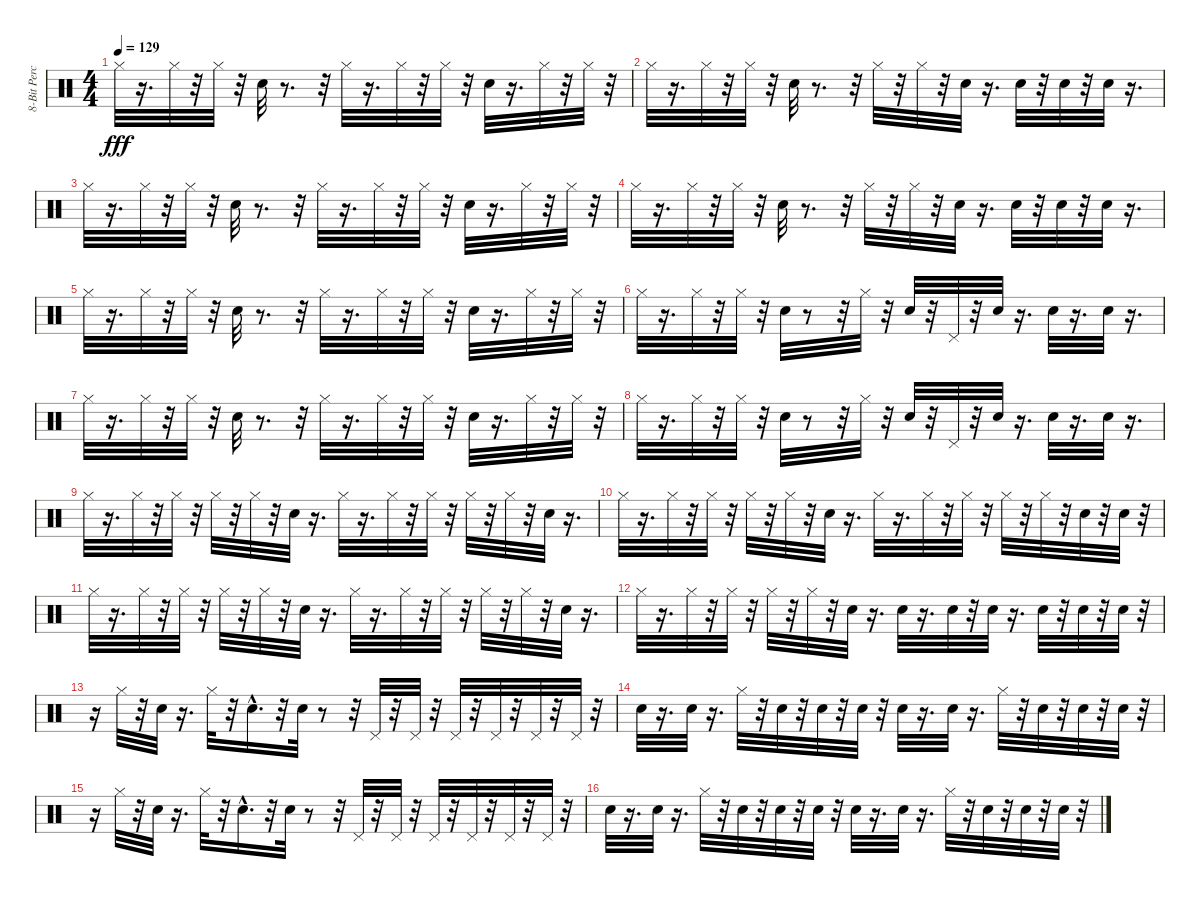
\track ("8-Bit Percussion" "8-Bit Perc") {instrument percussion}
\staff {score}
\articulation defaults
\ts (4 4)
\tempo 129
\clef neutral
\ks c "Hi-Hat (closed)".32{dy fff}
r.16{d} "Hi-Hat (closed)".32 r.32 "Hi-Hat (closed)".32 r.32 "Hand Clap (hit)".32 r.8{d} r.32 "Hi-Hat (closed)".32 r.16{d} "Hi-Hat (closed)".32 r.32 "Hi-Hat (closed)".32 r.32 "Hand Clap (hit)".32 r.16{d} "Hi-Hat (closed)".32 r.32 "Hi-Hat (closed)".32 r.32 |
"Hi-Hat (closed)".32 r.16{d} "Hi-Hat (closed)".32 r.32 "Hi-Hat (closed)".32 r.32 "Hand Clap (hit)".32 r.8{d} r.32 "Hi-Hat (closed)".32 r.32 "Hi-Hat (closed)".32 r.32 "Hand Clap (hit)".32 r.16{d} "Hand Clap (hit)".32 r.32 "Hand Clap (hit)".32 r.32 "Hand Clap (hit)".32 r.16{d} |
"Hi-Hat (closed)".32 r.16{d} "Hi-Hat (closed)".32 r.32 "Hi-Hat (closed)".32 r.32 "Hand Clap (hit)".32 r.8{d} r.32 "Hi-Hat (closed)".32 r.16{d} "Hi-Hat (closed)".32 r.32 "Hi-Hat (closed)".32 r.32 "Hand Clap (hit)".32 r.16{d} "Hi-Hat (closed)".32 r.32 "Hi-Hat (closed)".32 r.32 |
"Hi-Hat (closed)".32 r.16{d} "Hi-Hat (closed)".32 r.32 "Hi-Hat (closed)".32 r.32 "Hand Clap (hit)".32 r.8{d} r.32 "Hi-Hat (closed)".32 r.32 "Hi-Hat (closed)".32 r.32 "Hand Clap (hit)".32 r.16{d} "Hand Clap (hit)".32 r.32 "Hand Clap (hit)".32 r.32 "Hand Clap (hit)".32 r.16{d} |
"Hi-Hat (closed)".32 r.16{d} "Hi-Hat (closed)".32 r.32 "Hi-Hat (closed)".32 r.32 "Hand Clap (hit)".32 r.8{d} r.32 "Hi-Hat (closed)".32 r.16{d} "Hi-Hat (closed)".32 r.32 "Hi-Hat (closed)".32 r.32 "Hand Clap (hit)".32 r.16{d} "Hi-Hat (closed)".32 r.32 "Hi-Hat (closed)".32 r.32 |
"Hi-Hat (closed)".32 r.16{d} "Hi-Hat (closed)".32 r.32 "Hi-Hat (closed)".32 r.32 "Hand Clap (hit)".32 r.8 r.32 "Hi-Hat (closed)".32 r.32 "Hand Clap (hit)".32 r.32 "Pedal Hi-Hat (hit)".32 r.32 "Hand Clap (hit)".32 r.16{d} "Hand Clap (hit)".32 r.16{d} "Hand Clap (hit)".32 r.16{d} |
"Hi-Hat (closed)".32 r.16{d} "Hi-Hat (closed)".32 r.32 "Hi-Hat (closed)".32 r.32 "Hand Clap (hit)".32 r.8{d} r.32 "Hi-Hat (closed)".32 r.16{d} "Hi-Hat (closed)".32 r.32 "Hi-Hat (closed)".32 r.32 "Hand Clap (hit)".32 r.16{d} "Hi-Hat (closed)".32 r.32 "Hi-Hat (closed)".32 r.32 |
"Hi-Hat (closed)".32 r.16{d} "Hi-Hat (closed)".32 r.32 "Hi-Hat (closed)".32 r.32 "Hand Clap (hit)".32 r.8 r.32 "Hi-Hat (closed)".32 r.32 "Hand Clap (hit)".32 r.32 "Pedal Hi-Hat (hit)".32 r.32 "Hand Clap (hit)".32 r.16{d} "Hand Clap (hit)".32 r.16{d} "Hand Clap (hit)".32 r.16{d} |
"Hi-Hat (closed)".32 r.16{d} "Hi-Hat (closed)".32 r.32 "Hi-Hat (closed)".32 r.32 "Hi-Hat (closed)".32 r.32 "Hi-Hat (closed)".32 r.32 "Hand Clap (hit)".32 r.16{d} "Hi-Hat (closed)".32 r.16{d} "Hi-Hat (closed)".32 r.32 "Hi-Hat (closed)".32 r.32 "Hi-Hat (closed)".32 r.32 "Hi-Hat (closed)".32 r.32 "Hand Clap (hit)".32 r.16{d} |
"Hi-Hat (closed)".32 r.16{d} "Hi-Hat (closed)".32 r.32 "Hi-Hat (closed)".32 r.32 "Hi-Hat (closed)".32 r.32 "Hi-Hat (closed)".32 r.32 "Hand Clap (hit)".32 r.16{d} "Hi-Hat (closed)".32 r.16{d} "Hi-Hat (closed)".32 r.32 "Hi-Hat (closed)".32 r.32 "Hi-Hat (closed)".32 r.32 "Hi-Hat (closed)".32 r.32 "Hand Clap (hit)".32 r.32 "Hand Clap (hit)".32 r.32 |
"Hi-Hat (closed)".32 r.16{d} "Hi-Hat (closed)".32 r.32 "Hi-Hat (closed)".32 r.32 "Hi-Hat (closed)".32 r.32 "Hi-Hat (closed)".32 r.32 "Hand Clap (hit)".32 r.16{d} "Hi-Hat (closed)".32 r.16{d} "Hi-Hat (closed)".32 r.32 "Hi-Hat (closed)".32 r.32 "Hi-Hat (closed)".32 r.32 "Hi-Hat (closed)".32 r.32 "Hand Clap (hit)".32 r.16{d} |
"Hi-Hat (closed)".32 r.16{d} "Hi-Hat (closed)".32 r.32 "Hi-Hat (closed)".32 r.32 "Hi-Hat (closed)".32 r.32 "Hi-Hat (closed)".32 r.32 "Hand Clap (hit)".32 r.16{d} "Hand Clap (hit)".32 r.16{d} "Hand Clap (hit)".32 r.32 "Hand Clap (hit)".32 r.16{d} "Hand Clap (hit)".32 r.32 "Hand Clap (hit)".32 r.32 "Hand Clap (hit)".32 r.32 |
r.16 "Hi-Hat (closed)".32 r.32 "Hand Clap (hit)".32 r.16{d} "Hi-Hat (closed)".32 r.32 "Hand Clap (hit)"{hac}.16{d} r.32 "Hand Clap (hit)".32 r.8 r.32 "Pedal Hi-Hat (hit)".32 r.32 "Pedal Hi-Hat (hit)".32 r.32 "Pedal Hi-Hat (hit)".32 r.32 "Pedal Hi-Hat (hit)".32 r.32 "Pedal Hi-Hat (hit)".32 r.32 "Pedal Hi-Hat (hit)".32 r.32 |
"Hand Clap (hit)".32 r.16{d} "Hand Clap (hit)".32 r.16{d} "Hi-Hat (closed)".32 r.32 "Hand Clap (hit)".32 r.32 "Hand Clap (hit)".32 r.32 "Hand Clap (hit)".32 r.32 "Hand Clap (hit)".32 r.16{d} "Hand Clap (hit)".32 r.16{d} "Hi-Hat (closed)".32 r.32 "Hand Clap (hit)".32 r.32 "Hand Clap (hit)".32 r.32 "Hand Clap (hit)".32 r.32 |
r.16 "Hi-Hat (closed)".32 r.32 "Hand Clap (hit)".32 r.16{d} "Hi-Hat (closed)".32 r.32 "Hand Clap (hit)"{hac}.16{d} r.32 "Hand Clap (hit)".32 r.8 r.32 "Pedal Hi-Hat (hit)".32 r.32 "Pedal Hi-Hat (hit)".32 r.32 "Pedal Hi-Hat (hit)".32 r.32 "Pedal Hi-Hat (hit)".32 r.32 "Pedal Hi-Hat (hit)".32 r.32 "Pedal Hi-Hat (hit)".32 r.32 |
"Hand Clap (hit)".32 r.16{d} "Hand Clap (hit)".32 r.16{d} "Hi-Hat (closed)".32 r.32 "Hand Clap (hit)".32 r.32 "Hand Clap (hit)".32 r.32 "Hand Clap (hit)".32 r.32 "Hand Clap (hit)".32 r.16{d} "Hand Clap (hit)".32 r.16{d} "Hi-Hat (closed)".32 r.32 "Hand Clap (hit)".32 r.32 "Hand Clap (hit)".32 r.32 "Hand Clap (hit)".32 r.32
